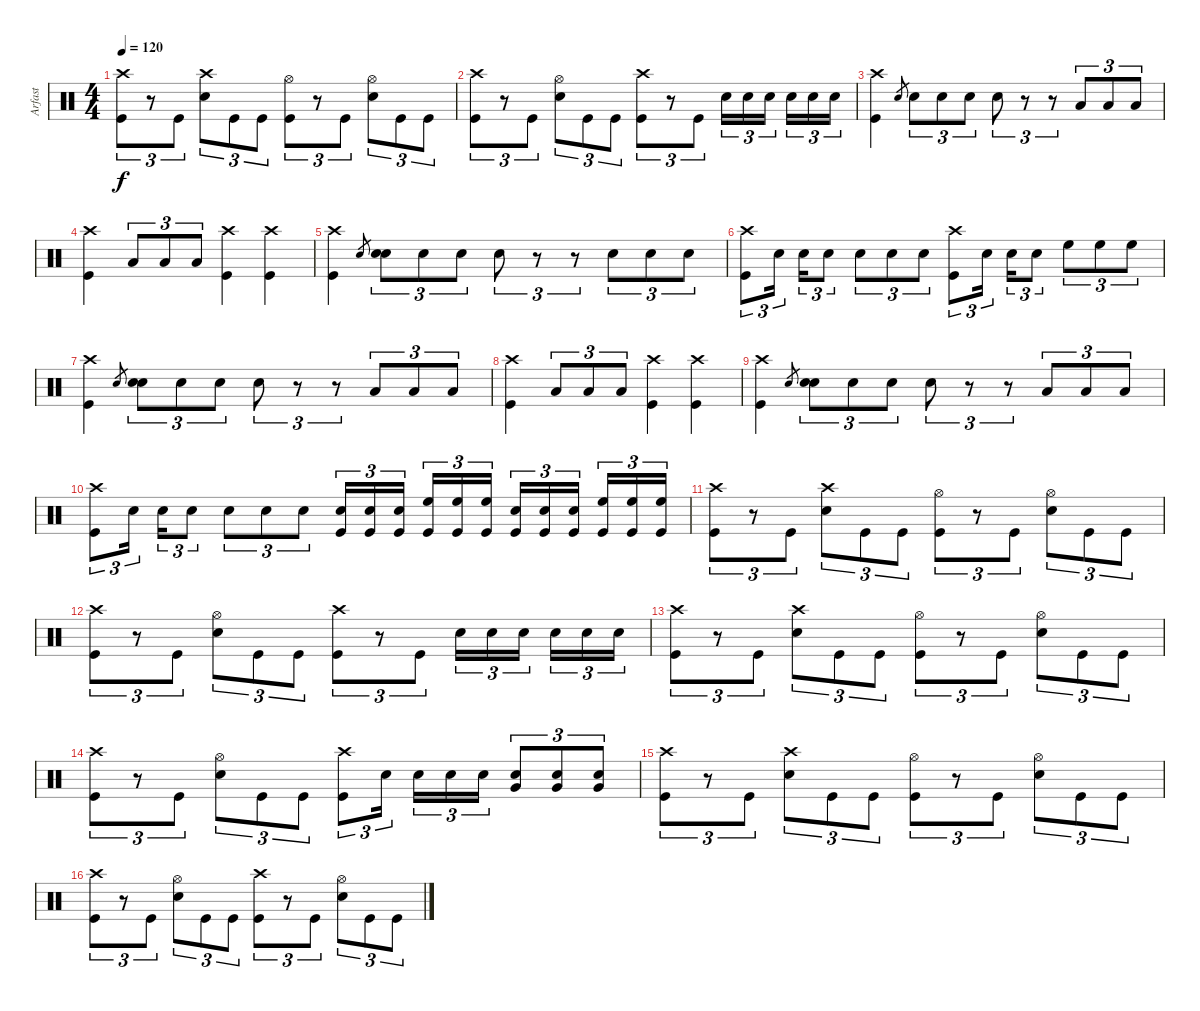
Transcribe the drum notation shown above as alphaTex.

\track ("Arfast" "Arfast") {instrument percussion}
\staff {score}
\articulation defaults
\ts (4 4)
\tempo 120
\clef neutral
\ks c
("Crash high (hit)" "Kick (hit)").8{tu (3 2) dy f} r.8{tu (3 2)} "Kick (hit)".8{tu (3 2)} ("Crash high (hit)" "Snare (hit) 2").8{tu (3 2)} "Kick (hit)".8{tu (3 2)} "Kick (hit)".8{tu (3 2)} ("Hi-Hat (open)" "Kick (hit)").8{tu (3 2)} r.8{tu (3 2)} "Kick (hit)".8{tu (3 2)} ("Hi-Hat (open)" "Snare (hit) 2").8{tu (3 2)} "Kick (hit)".8{tu (3 2)} "Kick (hit)".8{tu (3 2)} |
("Crash high (hit)" "Kick (hit)").8{tu (3 2)} r.8{tu (3 2)} "Kick (hit)".8{tu (3 2)} ("Hi-Hat (open)" "Snare (hit) 2").8{tu (3 2)} "Kick (hit)".8{tu (3 2)} "Kick (hit)".8{tu (3 2)} ("Crash high (hit)" "Kick (hit)").8{tu (3 2)} r.8{tu (3 2)} "Kick (hit)".8{tu (3 2)} "Snare (hit) 2".16{tu (3 2)} "Snare (hit) 2".16{tu (3 2)} "Snare (hit) 2".16{tu (3 2) beam splitsecondary} "Snare (hit) 2".16{tu (3 2)} "Snare (hit) 2".16{tu (3 2)} "Snare (hit) 2".16{tu (3 2)} |
("Crash high (hit)" "Kick (hit)").4 "Snare (hit) 2".8{gr} "Snare (hit) 2".8{tu (3 2)} "Snare (hit) 2".8{tu (3 2)} "Snare (hit) 2".8{tu (3 2)} "Snare (hit) 2".8{tu (3 2)} r.8{tu (3 2)} r.8{tu (3 2)} "Low Tom (hit)".8{tu (3 2)} "Low Tom (hit)".8{tu (3 2)} "Low Tom (hit)".8{tu (3 2)} |
("Crash high (hit)" "Kick (hit)").4 "Low Tom (hit)".8{tu (3 2)} "Low Tom (hit)".8{tu (3 2)} "Low Tom (hit)".8{tu (3 2)} ("Crash high (hit)" "Kick (hit)").4 ("Crash high (hit)" "Kick (hit)").4 |
("Crash high (hit)" "Kick (hit)").4 "Snare (hit) 2".8{gr} ("Snare (hit) 2" "Snare (hit) 2").8{tu (3 2)} "Snare (hit) 2".8{tu (3 2)} "Snare (hit) 2".8{tu (3 2)} "Snare (hit) 2".8{tu (3 2)} r.8{tu (3 2)} r.8{tu (3 2)} "Snare (hit) 2".8{tu (3 2)} "Snare (hit) 2".8{tu (3 2)} "Snare (hit) 2".8{tu (3 2)} |
("Crash high (hit)" "Kick (hit)").8{tu (3 2)} "Snare (hit) 2".16{tu (3 2) beam splitsecondary} "Snare (hit) 2".16{tu (3 2)} "Snare (hit) 2".8{tu (3 2)} "Snare (hit) 2".8{tu (3 2)} "Snare (hit) 2".8{tu (3 2)} "Snare (hit) 2".8{tu (3 2)} ("Crash high (hit)" "Kick (hit)").8{tu (3 2)} "Snare (hit) 2".16{tu (3 2) beam splitsecondary} "Snare (hit) 2".16{tu (3 2)} "Snare (hit) 2".8{tu (3 2)} "High Floor Tom (hit)".8{tu (3 2)} "High Floor Tom (hit)".8{tu (3 2)} "High Floor Tom (hit)".8{tu (3 2)} |
("Crash high (hit)" "Kick (hit)").4 "Snare (hit) 2".8{gr} ("Snare (hit) 2" "Snare (hit) 2").8{tu (3 2)} "Snare (hit) 2".8{tu (3 2)} "Snare (hit) 2".8{tu (3 2)} "Snare (hit) 2".8{tu (3 2)} r.8{tu (3 2)} r.8{tu (3 2)} "Low Tom (hit)".8{tu (3 2)} "Low Tom (hit)".8{tu (3 2)} "Low Tom (hit)".8{tu (3 2)} |
("Crash high (hit)" "Kick (hit)").4 "Low Tom (hit)".8{tu (3 2)} "Low Tom (hit)".8{tu (3 2)} "Low Tom (hit)".8{tu (3 2)} ("Crash high (hit)" "Kick (hit)").4 ("Crash high (hit)" "Kick (hit)").4 |
("Crash high (hit)" "Kick (hit)").4 "Snare (hit) 2".8{gr} ("Snare (hit) 2" "Snare (hit) 2").8{tu (3 2)} "Snare (hit) 2".8{tu (3 2)} "Snare (hit) 2".8{tu (3 2)} "Snare (hit) 2".8{tu (3 2)} r.8{tu (3 2)} r.8{tu (3 2)} "Low Tom (hit)".8{tu (3 2)} "Low Tom (hit)".8{tu (3 2)} "Low Tom (hit)".8{tu (3 2)} |
("Crash high (hit)" "Kick (hit)").8{tu (3 2)} "Snare (hit) 2".16{tu (3 2) beam splitsecondary} "Snare (hit) 2".16{tu (3 2)} "Snare (hit) 2".8{tu (3 2)} "Snare (hit) 2".8{tu (3 2)} "Snare (hit) 2".8{tu (3 2)} "Snare (hit) 2".8{tu (3 2)} ("Kick (hit)" "Snare (hit) 2").16{tu (3 2)} ("Kick (hit)" "Snare (hit) 2").16{tu (3 2)} ("Kick (hit)" "Snare (hit) 2").16{tu (3 2) beam splitsecondary} ("Kick (hit)" "High Floor Tom (hit)").16{tu (3 2)} ("Kick (hit)" "High Floor Tom (hit)").16{tu (3 2)} ("Kick (hit)" "High Floor Tom (hit)").16{tu (3 2)} ("Kick (hit)" "Snare (hit) 2").16{tu (3 2)} ("Kick (hit)" "Snare (hit) 2").16{tu (3 2)} ("Kick (hit)" "Snare (hit) 2").16{tu (3 2) beam splitsecondary} ("Kick (hit)" "High Floor Tom (hit)").16{tu (3 2)} ("Kick (hit)" "High Floor Tom (hit)").16{tu (3 2)} ("Kick (hit)" "High Floor Tom (hit)").16{tu (3 2)} |
("Crash high (hit)" "Kick (hit)").8{tu (3 2)} r.8{tu (3 2)} "Kick (hit)".8{tu (3 2)} ("Crash high (hit)" "Snare (hit) 2").8{tu (3 2)} "Kick (hit)".8{tu (3 2)} "Kick (hit)".8{tu (3 2)} ("Hi-Hat (open)" "Kick (hit)").8{tu (3 2)} r.8{tu (3 2)} "Kick (hit)".8{tu (3 2)} ("Hi-Hat (open)" "Snare (hit) 2").8{tu (3 2)} "Kick (hit)".8{tu (3 2)} "Kick (hit)".8{tu (3 2)} |
("Crash high (hit)" "Kick (hit)").8{tu (3 2)} r.8{tu (3 2)} "Kick (hit)".8{tu (3 2)} ("Hi-Hat (open)" "Snare (hit) 2").8{tu (3 2)} "Kick (hit)".8{tu (3 2)} "Kick (hit)".8{tu (3 2)} ("Crash high (hit)" "Kick (hit)").8{tu (3 2)} r.8{tu (3 2)} "Kick (hit)".8{tu (3 2)} "Snare (hit) 2".16{tu (3 2)} "Snare (hit) 2".16{tu (3 2)} "Snare (hit) 2".16{tu (3 2) beam splitsecondary} "Snare (hit) 2".16{tu (3 2)} "Snare (hit) 2".16{tu (3 2)} "Snare (hit) 2".16{tu (3 2)} |
("Crash high (hit)" "Kick (hit)").8{tu (3 2)} r.8{tu (3 2)} "Kick (hit)".8{tu (3 2)} ("Crash high (hit)" "Snare (hit) 2").8{tu (3 2)} "Kick (hit)".8{tu (3 2)} "Kick (hit)".8{tu (3 2)} ("Hi-Hat (open)" "Kick (hit)").8{tu (3 2)} r.8{tu (3 2)} "Kick (hit)".8{tu (3 2)} ("Hi-Hat (open)" "Snare (hit) 2").8{tu (3 2)} "Kick (hit)".8{tu (3 2)} "Kick (hit)".8{tu (3 2)} |
("Crash high (hit)" "Kick (hit)").8{tu (3 2)} r.8{tu (3 2)} "Kick (hit)".8{tu (3 2)} ("Hi-Hat (open)" "Snare (hit) 2").8{tu (3 2)} "Kick (hit)".8{tu (3 2)} "Kick (hit)".8{tu (3 2)} ("Crash high (hit)" "Kick (hit)").8{tu (3 2)} "Snare (hit) 2".16{tu (3 2) beam splitsecondary} "Snare (hit) 2".16{tu (3 2)} "Snare (hit) 2".16{tu (3 2)} "Snare (hit) 2".16{tu (3 2)} ("Snare (hit) 2" "Very Low Tom (hit)").8{tu (3 2)} ("Snare (hit) 2" "Very Low Tom (hit)").8{tu (3 2)} ("Snare (hit) 2" "Very Low Tom (hit)").8{tu (3 2)} |
("Crash high (hit)" "Kick (hit)").8{tu (3 2)} r.8{tu (3 2)} "Kick (hit)".8{tu (3 2)} ("Crash high (hit)" "Snare (hit) 2").8{tu (3 2)} "Kick (hit)".8{tu (3 2)} "Kick (hit)".8{tu (3 2)} ("Hi-Hat (open)" "Kick (hit)").8{tu (3 2)} r.8{tu (3 2)} "Kick (hit)".8{tu (3 2)} ("Hi-Hat (open)" "Snare (hit) 2").8{tu (3 2)} "Kick (hit)".8{tu (3 2)} "Kick (hit)".8{tu (3 2)} |
("Crash high (hit)" "Kick (hit)").8{tu (3 2)} r.8{tu (3 2)} "Kick (hit)".8{tu (3 2)} ("Hi-Hat (open)" "Snare (hit) 2").8{tu (3 2)} "Kick (hit)".8{tu (3 2)} "Kick (hit)".8{tu (3 2)} ("Crash high (hit)" "Kick (hit)").8{tu (3 2)} r.8{tu (3 2)} "Kick (hit)".8{tu (3 2)} ("Hi-Hat (open)" "Snare (hit) 2").8{tu (3 2)} "Kick (hit)".8{tu (3 2)} "Kick (hit)".8{tu (3 2)}
